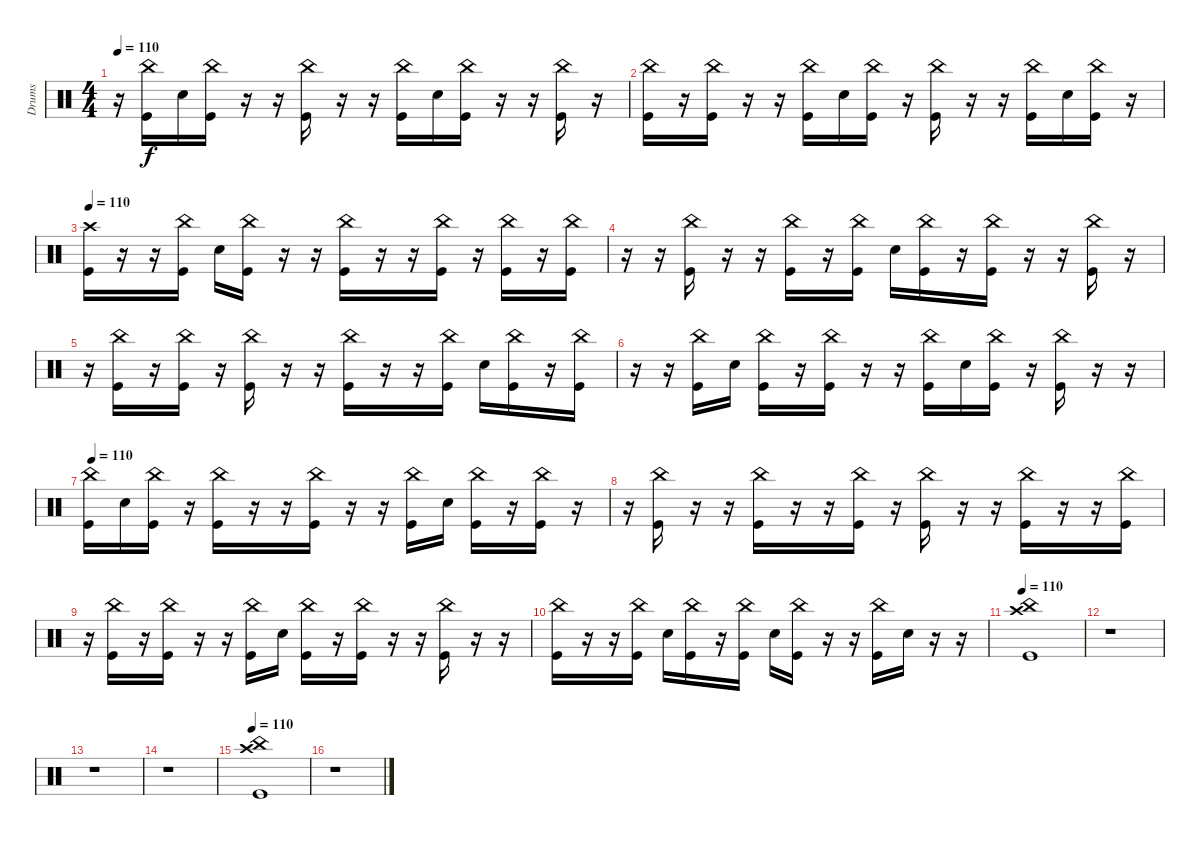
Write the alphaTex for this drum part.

\track ("Drums" "Drums") {instrument percussion}
\staff {score}
\articulation defaults
\ts (4 4)
\tempo 110
\clef neutral
\ks c
r.16{dy f} ("China (hit)" "Kick (hit)").16 "Snare (hit) 2".16 ("China (hit)" "Kick (hit)").16 r.16 r.16 ("China (hit)" "Kick (hit)").16 r.16 r.16 ("China (hit)" "Kick (hit)").16 "Snare (hit) 2".16 ("China (hit)" "Kick (hit)").16 r.16 r.16 ("China (hit)" "Kick (hit)").16 r.16 |
("China (hit)" "Kick (hit)").16 r.16 ("China (hit)" "Kick (hit)").16 r.16 r.16 ("China (hit)" "Kick (hit)").16 "Snare (hit) 2".16 ("China (hit)" "Kick (hit)").16 r.16 ("China (hit)" "Kick (hit)").16 r.16 r.16 ("China (hit)" "Kick (hit)").16 "Snare (hit) 2".16 ("China (hit)" "Kick (hit)").16 r.16 |
\tempo 110
("Crash high (hit)" "Kick (hit)").16 r.16 r.16 ("China (hit)" "Kick (hit)").16 "Snare (hit) 2".16 ("China (hit)" "Kick (hit)").16 r.16 r.16 ("China (hit)" "Kick (hit)").16 r.16 r.16 ("China (hit)" "Kick (hit)").16 r.16 ("China (hit)" "Kick (hit)").16 r.16 ("China (hit)" "Kick (hit)").16 |
r.16 r.16 ("China (hit)" "Kick (hit)").16 r.16 r.16 ("China (hit)" "Kick (hit)").16 r.16 ("China (hit)" "Kick (hit)").16 "Snare (hit) 2".16 ("China (hit)" "Kick (hit)").16 r.16 ("China (hit)" "Kick (hit)").16 r.16 r.16 ("China (hit)" "Kick (hit)").16 r.16 |
r.16 ("China (hit)" "Kick (hit)").16 r.16 ("China (hit)" "Kick (hit)").16 r.16 ("China (hit)" "Kick (hit)").16 r.16 r.16 ("China (hit)" "Kick (hit)").16 r.16 r.16 ("China (hit)" "Kick (hit)").16 "Snare (hit) 2".16 ("China (hit)" "Kick (hit)").16 r.16 ("China (hit)" "Kick (hit)").16 |
r.16 r.16 ("China (hit)" "Kick (hit)").16 "Snare (hit) 2".16 ("China (hit)" "Kick (hit)").16 r.16 ("China (hit)" "Kick (hit)").16 r.16 r.16 ("China (hit)" "Kick (hit)").16 "Snare (hit) 2".16 ("China (hit)" "Kick (hit)").16 r.16 ("China (hit)" "Kick (hit)").16 r.16 r.16 |
\tempo 110
("China (hit)" "Kick (hit)").16 "Snare (hit) 2".16 ("China (hit)" "Kick (hit)").16 r.16 ("China (hit)" "Kick (hit)").16 r.16 r.16 ("China (hit)" "Kick (hit)").16 r.16 r.16 ("China (hit)" "Kick (hit)").16 "Snare (hit) 2".16 ("China (hit)" "Kick (hit)").16 r.16 ("China (hit)" "Kick (hit)").16 r.16 |
r.16 ("China (hit)" "Kick (hit)").16 r.16 r.16 ("China (hit)" "Kick (hit)").16 r.16 r.16 ("China (hit)" "Kick (hit)").16 r.16 ("China (hit)" "Kick (hit)").16 r.16 r.16 ("China (hit)" "Kick (hit)").16 r.16 r.16 ("China (hit)" "Kick (hit)").16 |
r.16 ("China (hit)" "Kick (hit)").16 r.16 ("China (hit)" "Kick (hit)").16 r.16 r.16 ("China (hit)" "Kick (hit)").16 "Snare (hit) 2".16 ("China (hit)" "Kick (hit)").16 r.16 ("China (hit)" "Kick (hit)").16 r.16 r.16 ("China (hit)" "Kick (hit)").16 r.16 r.16 |
("China (hit)" "Kick (hit)").16 r.16 r.16 ("China (hit)" "Kick (hit)").16 "Snare (hit) 2".16 ("China (hit)" "Kick (hit)").16 r.16 ("China (hit)" "Kick (hit)").16 "Snare (hit) 2".16 ("China (hit)" "Kick (hit)").16 r.16 r.16 ("China (hit)" "Kick (hit)").16 "Snare (hit) 2".16 r.16 r.16 |
\tempo 110
("Crash high (hit)" "China (hit)" "Kick (hit)").1 |
r.1 |
r.1 |
r.1 |
\tempo 110
("Crash high (hit)" "China (hit)" "Kick (hit)").1 |
r.1
